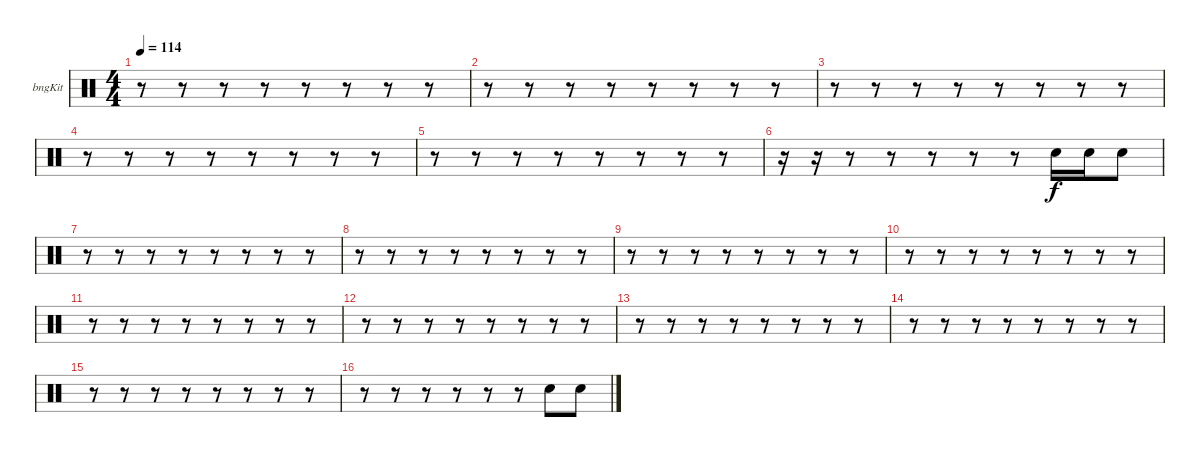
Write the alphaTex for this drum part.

\bracketExtendMode groupsimilarinstruments
\firstSystemTrackNameOrientation horizontal
\otherSystemsTrackNameOrientation horizontal
\track ("Bongos" "bngKit") {instrument percussion}
\staff {score}
\articulation defaults
\ts (4 4)
\tempo 114
\clef neutral
\ks c
r.8{dy f} r.8 r.8 r.8 r.8 r.8 r.8 r.8 |
r.8 r.8 r.8 r.8 r.8 r.8 r.8 r.8 |
r.8 r.8 r.8 r.8 r.8 r.8 r.8 r.8 |
r.8 r.8 r.8 r.8 r.8 r.8 r.8 r.8 |
r.8 r.8 r.8 r.8 r.8 r.8 r.8 r.8 |
r.16 r.16 r.8 r.8 r.8 r.8 r.8 "Snare (hit) 2".16 "Snare (hit) 2".16 "Snare (hit) 2".8 |
r.8 r.8 r.8 r.8 r.8 r.8 r.8 r.8 |
r.8 r.8 r.8 r.8 r.8 r.8 r.8 r.8 |
r.8 r.8 r.8 r.8 r.8 r.8 r.8 r.8 |
r.8 r.8 r.8 r.8 r.8 r.8 r.8 r.8 |
r.8 r.8 r.8 r.8 r.8 r.8 r.8 r.8 |
r.8 r.8 r.8 r.8 r.8 r.8 r.8 r.8 |
r.8 r.8 r.8 r.8 r.8 r.8 r.8 r.8 |
r.8 r.8 r.8 r.8 r.8 r.8 r.8 r.8 |
r.8 r.8 r.8 r.8 r.8 r.8 r.8 r.8 |
r.8 r.8 r.8 r.8 r.8 r.8 "Snare (hit) 2".8 "Snare (hit) 2".8
